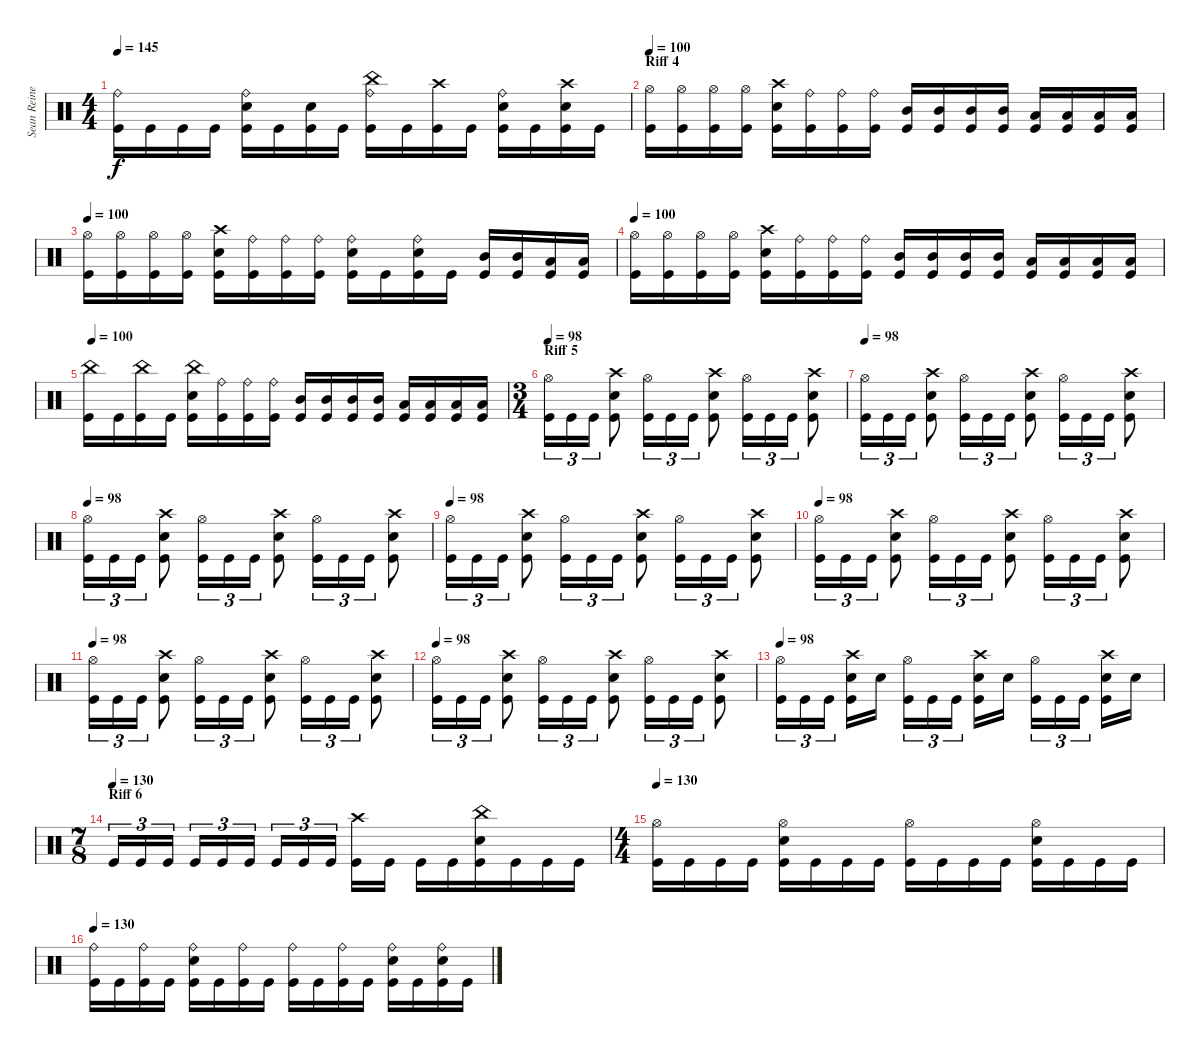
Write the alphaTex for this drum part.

\track ("Sean Reinert" "Sean Reine") {instrument percussion}
\staff {score}
\articulation defaults
\ts (4 4)
\tempo 145
\clef neutral
\ks c
("Ride (bell)" "Kick (hit)").16{dy f} "Kick (hit)".16 "Kick (hit)".16 "Kick (hit)".16 ("Ride (bell)" "Snare (hit) 2" "Kick (hit)").16 "Kick (hit)".16 ("Snare (hit) 2" "Kick (hit)").16 "Kick (hit)".16 ("China (hit)" "Ride (bell)" "Kick (hit)").16 "Kick (hit)".16 ("Crash high (hit)" "Kick (hit)").16 "Kick (hit)".16 ("Ride (bell)" "Snare (hit) 2" "Kick (hit)").16 "Kick (hit)".16 ("Crash high (hit)" "Snare (hit) 2" "Kick (hit)").16 "Kick (hit)".16 |
\section ("" "Riff 4")
\tempo 100
("Hi-Hat (open)" "Kick (hit)").16 ("Hi-Hat (open)" "Kick (hit)").16 ("Hi-Hat (open)" "Kick (hit)").16 ("Hi-Hat (open)" "Kick (hit)").16 ("Crash high (hit)" "Snare (hit) 2" "Kick (hit)").16 ("Ride (bell)" "Kick (hit)").16 ("Ride (bell)" "Kick (hit)").16 ("Ride (bell)" "Kick (hit)").16 ("Mid Tom (hit)" "Kick (hit)").16 ("Mid Tom (hit)" "Kick (hit)").16 ("Mid Tom (hit)" "Kick (hit)").16 ("Mid Tom (hit)" "Kick (hit)").16 ("Low Tom (hit)" "Kick (hit)").16 ("Low Tom (hit)" "Kick (hit)").16 ("Low Tom (hit)" "Kick (hit)").16 ("Low Tom (hit)" "Kick (hit)").16 |
\tempo 100
("Hi-Hat (open)" "Kick (hit)").16 ("Hi-Hat (open)" "Kick (hit)").16 ("Hi-Hat (open)" "Kick (hit)").16 ("Hi-Hat (open)" "Kick (hit)").16 ("Crash high (hit)" "Snare (hit) 2" "Kick (hit)").16 ("Ride (bell)" "Kick (hit)").16 ("Ride (bell)" "Kick (hit)").16 ("Ride (bell)" "Kick (hit)").16 ("Ride (bell)" "Snare (hit) 2" "Kick (hit)").16 "Kick (hit)".16 ("Ride (bell)" "Snare (hit) 2" "Kick (hit)").16 "Kick (hit)".16 ("Mid Tom (hit)" "Kick (hit)").16 ("Mid Tom (hit)" "Kick (hit)").16 ("Low Tom (hit)" "Kick (hit)").16 ("Low Tom (hit)" "Kick (hit)").16 |
\tempo 100
("Hi-Hat (open)" "Kick (hit)").16 ("Hi-Hat (open)" "Kick (hit)").16 ("Hi-Hat (open)" "Kick (hit)").16 ("Hi-Hat (open)" "Kick (hit)").16 ("Crash high (hit)" "Snare (hit) 2" "Kick (hit)").16 ("Ride (bell)" "Kick (hit)").16 ("Ride (bell)" "Kick (hit)").16 ("Ride (bell)" "Kick (hit)").16 ("Mid Tom (hit)" "Kick (hit)").16 ("Mid Tom (hit)" "Kick (hit)").16 ("Mid Tom (hit)" "Kick (hit)").16 ("Mid Tom (hit)" "Kick (hit)").16 ("Low Tom (hit)" "Kick (hit)").16 ("Low Tom (hit)" "Kick (hit)").16 ("Low Tom (hit)" "Kick (hit)").16 ("Low Tom (hit)" "Kick (hit)").16 |
\tempo 100
("China (hit)" "Kick (hit)").16 "Kick (hit)".16 ("China (hit)" "Kick (hit)").16 "Kick (hit)".16 ("China (hit)" "Snare (hit) 2" "Kick (hit)").16 ("Ride (bell)" "Kick (hit)").16 ("Ride (bell)" "Kick (hit)").16 ("Ride (bell)" "Kick (hit)").16 ("Mid Tom (hit)" "Kick (hit)").16 ("Mid Tom (hit)" "Kick (hit)").16 ("Mid Tom (hit)" "Kick (hit)").16 ("Mid Tom (hit)" "Kick (hit)").16 ("Low Tom (hit)" "Kick (hit)").16 ("Low Tom (hit)" "Kick (hit)").16 ("Low Tom (hit)" "Kick (hit)").16 ("Low Tom (hit)" "Kick (hit)").16 |
\ts (3 4)
\section ("" "Riff 5")
\tempo 98
("Hi-Hat (open)" "Kick (hit)").16{tu (3 2)} "Kick (hit)".16{tu (3 2)} "Kick (hit)".16{tu (3 2)} ("Crash high (hit)" "Snare (hit) 2" "Kick (hit)").8 ("Hi-Hat (open)" "Kick (hit)").16{tu (3 2)} "Kick (hit)".16{tu (3 2)} "Kick (hit)".16{tu (3 2)} ("Crash high (hit)" "Snare (hit) 2" "Kick (hit)").8 ("Hi-Hat (open)" "Kick (hit)").16{tu (3 2)} "Kick (hit)".16{tu (3 2)} "Kick (hit)".16{tu (3 2)} ("Crash high (hit)" "Snare (hit) 2" "Kick (hit)").8 |
\tempo 98
("Hi-Hat (open)" "Kick (hit)").16{tu (3 2)} "Kick (hit)".16{tu (3 2)} "Kick (hit)".16{tu (3 2)} ("Crash high (hit)" "Snare (hit) 2" "Kick (hit)").8 ("Hi-Hat (open)" "Kick (hit)").16{tu (3 2)} "Kick (hit)".16{tu (3 2)} "Kick (hit)".16{tu (3 2)} ("Crash high (hit)" "Snare (hit) 2" "Kick (hit)").8 ("Hi-Hat (open)" "Kick (hit)").16{tu (3 2)} "Kick (hit)".16{tu (3 2)} "Kick (hit)".16{tu (3 2)} ("Crash high (hit)" "Snare (hit) 2" "Kick (hit)").8 |
\tempo 98
("Hi-Hat (open)" "Kick (hit)").16{tu (3 2)} "Kick (hit)".16{tu (3 2)} "Kick (hit)".16{tu (3 2)} ("Crash high (hit)" "Snare (hit) 2" "Kick (hit)").8 ("Hi-Hat (open)" "Kick (hit)").16{tu (3 2)} "Kick (hit)".16{tu (3 2)} "Kick (hit)".16{tu (3 2)} ("Crash high (hit)" "Snare (hit) 2" "Kick (hit)").8 ("Hi-Hat (open)" "Kick (hit)").16{tu (3 2)} "Kick (hit)".16{tu (3 2)} "Kick (hit)".16{tu (3 2)} ("Crash high (hit)" "Snare (hit) 2" "Kick (hit)").8 |
\tempo 98
("Hi-Hat (open)" "Kick (hit)").16{tu (3 2)} "Kick (hit)".16{tu (3 2)} "Kick (hit)".16{tu (3 2)} ("Crash high (hit)" "Snare (hit) 2" "Kick (hit)").8 ("Hi-Hat (open)" "Kick (hit)").16{tu (3 2)} "Kick (hit)".16{tu (3 2)} "Kick (hit)".16{tu (3 2)} ("Crash high (hit)" "Snare (hit) 2" "Kick (hit)").8 ("Hi-Hat (open)" "Kick (hit)").16{tu (3 2)} "Kick (hit)".16{tu (3 2)} "Kick (hit)".16{tu (3 2)} ("Crash high (hit)" "Snare (hit) 2" "Kick (hit)").8 |
\tempo 98
("Hi-Hat (open)" "Kick (hit)").16{tu (3 2)} "Kick (hit)".16{tu (3 2)} "Kick (hit)".16{tu (3 2)} ("Crash high (hit)" "Snare (hit) 2" "Kick (hit)").8 ("Hi-Hat (open)" "Kick (hit)").16{tu (3 2)} "Kick (hit)".16{tu (3 2)} "Kick (hit)".16{tu (3 2)} ("Crash high (hit)" "Snare (hit) 2" "Kick (hit)").8 ("Hi-Hat (open)" "Kick (hit)").16{tu (3 2)} "Kick (hit)".16{tu (3 2)} "Kick (hit)".16{tu (3 2)} ("Crash high (hit)" "Snare (hit) 2" "Kick (hit)").8 |
\tempo 98
("Hi-Hat (open)" "Kick (hit)").16{tu (3 2)} "Kick (hit)".16{tu (3 2)} "Kick (hit)".16{tu (3 2)} ("Crash high (hit)" "Snare (hit) 2" "Kick (hit)").8 ("Hi-Hat (open)" "Kick (hit)").16{tu (3 2)} "Kick (hit)".16{tu (3 2)} "Kick (hit)".16{tu (3 2)} ("Crash high (hit)" "Snare (hit) 2" "Kick (hit)").8 ("Hi-Hat (open)" "Kick (hit)").16{tu (3 2)} "Kick (hit)".16{tu (3 2)} "Kick (hit)".16{tu (3 2)} ("Crash high (hit)" "Snare (hit) 2" "Kick (hit)").8 |
\tempo 98
("Hi-Hat (open)" "Kick (hit)").16{tu (3 2)} "Kick (hit)".16{tu (3 2)} "Kick (hit)".16{tu (3 2)} ("Crash high (hit)" "Snare (hit) 2" "Kick (hit)").8 ("Hi-Hat (open)" "Kick (hit)").16{tu (3 2)} "Kick (hit)".16{tu (3 2)} "Kick (hit)".16{tu (3 2)} ("Crash high (hit)" "Snare (hit) 2" "Kick (hit)").8 ("Hi-Hat (open)" "Kick (hit)").16{tu (3 2)} "Kick (hit)".16{tu (3 2)} "Kick (hit)".16{tu (3 2)} ("Crash high (hit)" "Snare (hit) 2" "Kick (hit)").8 |
\tempo 98
("Hi-Hat (open)" "Kick (hit)").16{tu (3 2)} "Kick (hit)".16{tu (3 2)} "Kick (hit)".16{tu (3 2)} ("Crash high (hit)" "Snare (hit) 2" "Kick (hit)").16 "Snare (hit) 2".16 ("Hi-Hat (open)" "Kick (hit)").16{tu (3 2)} "Kick (hit)".16{tu (3 2)} "Kick (hit)".16{tu (3 2)} ("Crash high (hit)" "Snare (hit) 2" "Kick (hit)").16 "Snare (hit) 2".16 ("Hi-Hat (open)" "Kick (hit)").16{tu (3 2)} "Kick (hit)".16{tu (3 2)} "Kick (hit)".16{tu (3 2)} ("Crash high (hit)" "Snare (hit) 2" "Kick (hit)").16 "Snare (hit) 2".16 |
\ts (7 8)
\section ("" "Riff 6")
\tempo (130)
"Kick (hit)".16{tu (3 2)} "Kick (hit)".16{tu (3 2)} "Kick (hit)".16{tu (3 2)} "Kick (hit)".16{tu (3 2)} "Kick (hit)".16{tu (3 2)} "Kick (hit)".16{tu (3 2)} "Kick (hit)".16{tu (3 2)} "Kick (hit)".16{tu (3 2)} "Kick (hit)".16{tu (3 2)} ("Crash high (hit)" "Kick (hit)").16 "Kick (hit)".16 "Kick (hit)".16 "Kick (hit)".16 ("China (hit)" "Snare (hit) 2" "Kick (hit)").16 "Kick (hit)".16 "Kick (hit)".16 "Kick (hit)".16 |
\ts (4 4)
\tempo 130
("Hi-Hat (open)" "Kick (hit)").16 "Kick (hit)".16 "Kick (hit)".16 "Kick (hit)".16 ("Hi-Hat (open)" "Snare (hit) 2" "Kick (hit)").16 "Kick (hit)".16 "Kick (hit)".16 "Kick (hit)".16 ("Hi-Hat (open)" "Kick (hit)").16 "Kick (hit)".16 "Kick (hit)".16 "Kick (hit)".16 ("Hi-Hat (open)" "Snare (hit) 2" "Kick (hit)").16 "Kick (hit)".16 "Kick (hit)".16 "Kick (hit)".16 |
\tempo 130
("Ride (bell)" "Kick (hit)").16 "Kick (hit)".16 ("Ride (bell)" "Kick (hit)").16 "Kick (hit)".16 ("Ride (bell)" "Snare (hit) 2" "Kick (hit)").16 "Kick (hit)".16 ("Ride (bell)" "Kick (hit)").16 "Kick (hit)".16 ("Ride (bell)" "Kick (hit)").16 "Kick (hit)".16 ("Ride (bell)" "Kick (hit)").16 "Kick (hit)".16 ("Ride (bell)" "Snare (hit) 2" "Kick (hit)").16 "Kick (hit)".16 ("Ride (bell)" "Snare (hit) 2" "Kick (hit)").16 "Kick (hit)".16
